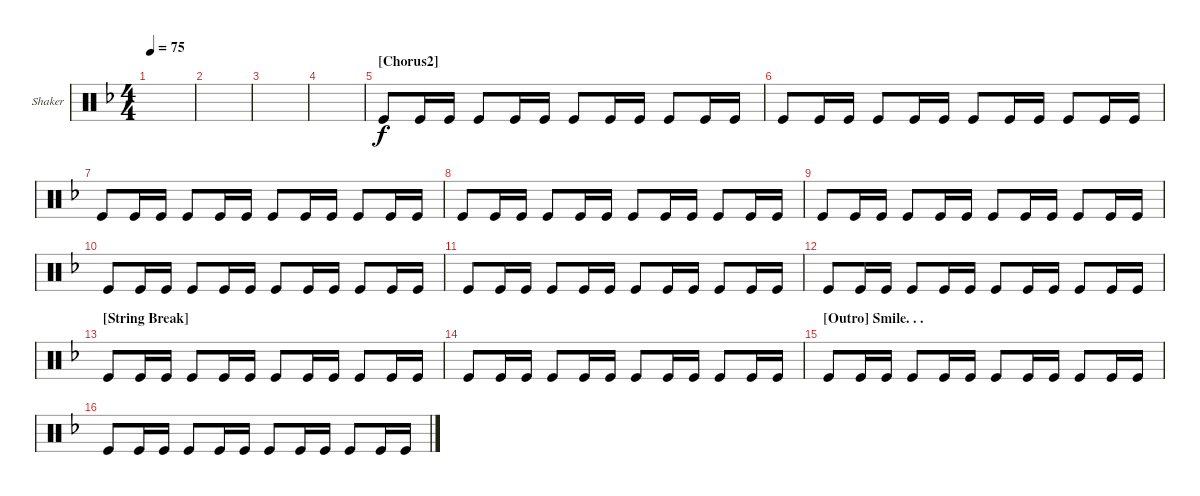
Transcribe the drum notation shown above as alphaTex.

\defaultSystemsLayout 4
\bracketExtendMode groupsimilarinstruments
\firstSystemTrackNameOrientation horizontal
\otherSystemsTrackNameOrientation horizontal
\track ("Shaker" "Shaker") {instrument percussion}
\staff {score}
\articulation defaults
\ts (4 4)
\tempo 75
\clef neutral
\scale
0.333333
\ks dminor
|
\scale
0.333333 |
\scale
0.333333 |
\scale
0.333333 |
\section ("" "[Chorus2]")
\scale
0.333333 "Kick (hit)".8 "Kick (hit)".16 "Kick (hit)".16 "Kick (hit)".8 "Kick (hit)".16 "Kick (hit)".16 "Kick (hit)".8 "Kick (hit)".16 "Kick (hit)".16 "Kick (hit)".8 "Kick (hit)".16 "Kick (hit)".16 |
\scale
0.333333 "Kick (hit)".8 "Kick (hit)".16 "Kick (hit)".16 "Kick (hit)".8 "Kick (hit)".16 "Kick (hit)".16 "Kick (hit)".8 "Kick (hit)".16 "Kick (hit)".16 "Kick (hit)".8 "Kick (hit)".16 "Kick (hit)".16 |
\scale
0.333333 "Kick (hit)".8 "Kick (hit)".16 "Kick (hit)".16 "Kick (hit)".8 "Kick (hit)".16 "Kick (hit)".16 "Kick (hit)".8 "Kick (hit)".16 "Kick (hit)".16 "Kick (hit)".8 "Kick (hit)".16 "Kick (hit)".16 |
\scale
0.333333 "Kick (hit)".8 "Kick (hit)".16 "Kick (hit)".16 "Kick (hit)".8 "Kick (hit)".16 "Kick (hit)".16 "Kick (hit)".8 "Kick (hit)".16 "Kick (hit)".16 "Kick (hit)".8 "Kick (hit)".16 "Kick (hit)".16 |
\scale
0.333333 "Kick (hit)".8 "Kick (hit)".16 "Kick (hit)".16 "Kick (hit)".8 "Kick (hit)".16 "Kick (hit)".16 "Kick (hit)".8 "Kick (hit)".16 "Kick (hit)".16 "Kick (hit)".8 "Kick (hit)".16 "Kick (hit)".16 |
\scale
0.333333 "Kick (hit)".8 "Kick (hit)".16 "Kick (hit)".16 "Kick (hit)".8 "Kick (hit)".16 "Kick (hit)".16 "Kick (hit)".8 "Kick (hit)".16 "Kick (hit)".16 "Kick (hit)".8 "Kick (hit)".16 "Kick (hit)".16 |
\scale
0.333333 "Kick (hit)".8 "Kick (hit)".16 "Kick (hit)".16 "Kick (hit)".8 "Kick (hit)".16 "Kick (hit)".16 "Kick (hit)".8 "Kick (hit)".16 "Kick (hit)".16 "Kick (hit)".8 "Kick (hit)".16 "Kick (hit)".16 |
\scale
0.333333 "Kick (hit)".8 "Kick (hit)".16 "Kick (hit)".16 "Kick (hit)".8 "Kick (hit)".16 "Kick (hit)".16 "Kick (hit)".8 "Kick (hit)".16 "Kick (hit)".16 "Kick (hit)".8 "Kick (hit)".16 "Kick (hit)".16 |
\section ("" "[String Break]    ")
\scale
0.333333 "Kick (hit)".8 "Kick (hit)".16 "Kick (hit)".16 "Kick (hit)".8 "Kick (hit)".16 "Kick (hit)".16 "Kick (hit)".8 "Kick (hit)".16 "Kick (hit)".16 "Kick (hit)".8 "Kick (hit)".16 "Kick (hit)".16 |
\scale
0.333333 "Kick (hit)".8 "Kick (hit)".16 "Kick (hit)".16 "Kick (hit)".8 "Kick (hit)".16 "Kick (hit)".16 "Kick (hit)".8 "Kick (hit)".16 "Kick (hit)".16 "Kick (hit)".8 "Kick (hit)".16 "Kick (hit)".16 |
\section ("" "[Outro] Smile. . .")
\scale
0.333333 "Kick (hit)".8 "Kick (hit)".16 "Kick (hit)".16 "Kick (hit)".8 "Kick (hit)".16 "Kick (hit)".16 "Kick (hit)".8 "Kick (hit)".16 "Kick (hit)".16 "Kick (hit)".8 "Kick (hit)".16 "Kick (hit)".16 |
\scale
0.333333 "Kick (hit)".8 "Kick (hit)".16 "Kick (hit)".16 "Kick (hit)".8 "Kick (hit)".16 "Kick (hit)".16 "Kick (hit)".8 "Kick (hit)".16 "Kick (hit)".16 "Kick (hit)".8 "Kick (hit)".16 "Kick (hit)".16
